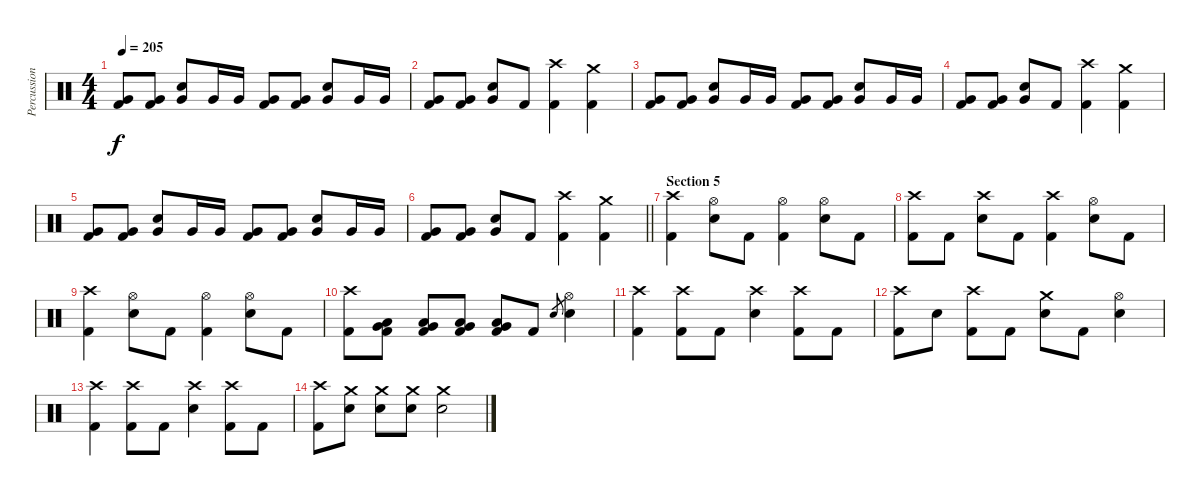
\track ("Percussion" "Percussion") {instrument percussion}
\staff {score}
\articulation defaults
\ts (4 4)
\tempo 205
\clef neutral
\ks c
("Very Low Tom (hit)" "Kick (hit) 2").8{dy f} ("Very Low Tom (hit)" "Kick (hit) 2").8 ("Very Low Tom (hit)" "Electric Snare (hit)").8 "Very Low Tom (hit)".16 "Very Low Tom (hit)".16 ("Very Low Tom (hit)" "Kick (hit) 2").8 ("Very Low Tom (hit)" "Kick (hit) 2").8 ("Very Low Tom (hit)" "Electric Snare (hit)").8 "Very Low Tom (hit)".16 "Very Low Tom (hit)".16 |
("Very Low Tom (hit)" "Kick (hit) 2").8 ("Very Low Tom (hit)" "Kick (hit) 2").8 ("Very Low Tom (hit)" "Electric Snare (hit)").8 "Kick (hit) 2".8 ("Crash high (hit)" "Kick (hit) 2").4 ("Crash medium (hit)" "Kick (hit) 2").4 |
("Very Low Tom (hit)" "Kick (hit) 2").8 ("Very Low Tom (hit)" "Kick (hit) 2").8 ("Very Low Tom (hit)" "Electric Snare (hit)").8 "Very Low Tom (hit)".16 "Very Low Tom (hit)".16 ("Very Low Tom (hit)" "Kick (hit) 2").8 ("Very Low Tom (hit)" "Kick (hit) 2").8 ("Very Low Tom (hit)" "Electric Snare (hit)").8 "Very Low Tom (hit)".16 "Very Low Tom (hit)".16 |
("Very Low Tom (hit)" "Kick (hit) 2").8 ("Very Low Tom (hit)" "Kick (hit) 2").8 ("Very Low Tom (hit)" "Electric Snare (hit)").8 "Kick (hit) 2".8 ("Crash high (hit)" "Kick (hit) 2").4 ("Crash medium (hit)" "Kick (hit) 2").4 |
("Very Low Tom (hit)" "Kick (hit) 2").8 ("Very Low Tom (hit)" "Kick (hit) 2").8 ("Very Low Tom (hit)" "Electric Snare (hit)").8 "Very Low Tom (hit)".16 "Very Low Tom (hit)".16 ("Very Low Tom (hit)" "Kick (hit) 2").8 ("Very Low Tom (hit)" "Kick (hit) 2").8 ("Very Low Tom (hit)" "Electric Snare (hit)").8 "Very Low Tom (hit)".16 "Very Low Tom (hit)".16 |
\barLineRight lightlight
("Very Low Tom (hit)" "Kick (hit) 2").8 ("Very Low Tom (hit)" "Kick (hit) 2").8 ("Very Low Tom (hit)" "Electric Snare (hit)").8 "Kick (hit) 2".8 ("Crash high (hit)" "Kick (hit) 2").4 ("Crash medium (hit)" "Kick (hit) 2").4 |
\section ("" "Section 5")
("Crash high (hit)" "Kick (hit) 2").4 ("Hi-Hat (open)" "Electric Snare (hit)").8 "Kick (hit) 2".8 ("Hi-Hat (open)" "Kick (hit) 2").4 ("Hi-Hat (open)" "Electric Snare (hit)").8 "Kick (hit) 2".8 |
("Crash high (hit)" "Kick (hit) 2").8 "Kick (hit) 2".8 ("Crash high (hit)" "Electric Snare (hit)").8 "Kick (hit) 2".8 ("Crash high (hit)" "Kick (hit) 2").4 ("Hi-Hat (open)" "Electric Snare (hit)").8 "Kick (hit) 2".8 |
("Crash high (hit)" "Kick (hit) 2").4 ("Hi-Hat (open)" "Electric Snare (hit)").8 "Kick (hit) 2".8 ("Hi-Hat (open)" "Kick (hit) 2").4 ("Hi-Hat (open)" "Electric Snare (hit)").8 "Kick (hit) 2".8 |
("Crash high (hit)" "Kick (hit) 2").8 ("Very Low Tom (hit)" "Low Tom (hit)" "Kick (hit) 2").8 ("Very Low Tom (hit)" "Low Tom (hit)" "Kick (hit) 2").8 ("Very Low Tom (hit)" "Low Tom (hit)" "Kick (hit) 2").8 ("Very Low Tom (hit)" "Low Tom (hit)" "Kick (hit) 2").8 "Kick (hit) 2".8 "Electric Snare (hit)".8{gr} ("Electric Snare (hit)" "Hi-Hat (open)").4 |
("Crash high (hit)" "Kick (hit) 2").4 ("Crash high (hit)" "Kick (hit) 2").8 "Kick (hit) 2".8 ("Crash high (hit)" "Electric Snare (hit)").4 ("Crash high (hit)" "Kick (hit) 2").8 "Kick (hit) 2".8 |
("Crash high (hit)" "Kick (hit) 2").8 "Electric Snare (hit)".8 ("Crash high (hit)" "Kick (hit) 2").8 "Kick (hit) 2".8 ("Crash medium (hit)" "Electric Snare (hit)").8 "Kick (hit) 2".8 ("Hi-Hat (open)" "Electric Snare (hit)").4 |
("Crash high (hit)" "Kick (hit) 2").4 ("Crash high (hit)" "Kick (hit) 2").8 "Kick (hit) 2".8 ("Crash high (hit)" "Electric Snare (hit)").4 ("Crash high (hit)" "Kick (hit) 2").8 "Kick (hit) 2".8 |
("Crash high (hit)" "Kick (hit) 2").8 ("Crash medium (hit)" "Electric Snare (hit)").8 ("Crash medium (hit)" "Electric Snare (hit)").8 ("Crash medium (hit)" "Electric Snare (hit)").8 ("Crash medium (hit)" "Electric Snare (hit)").2
